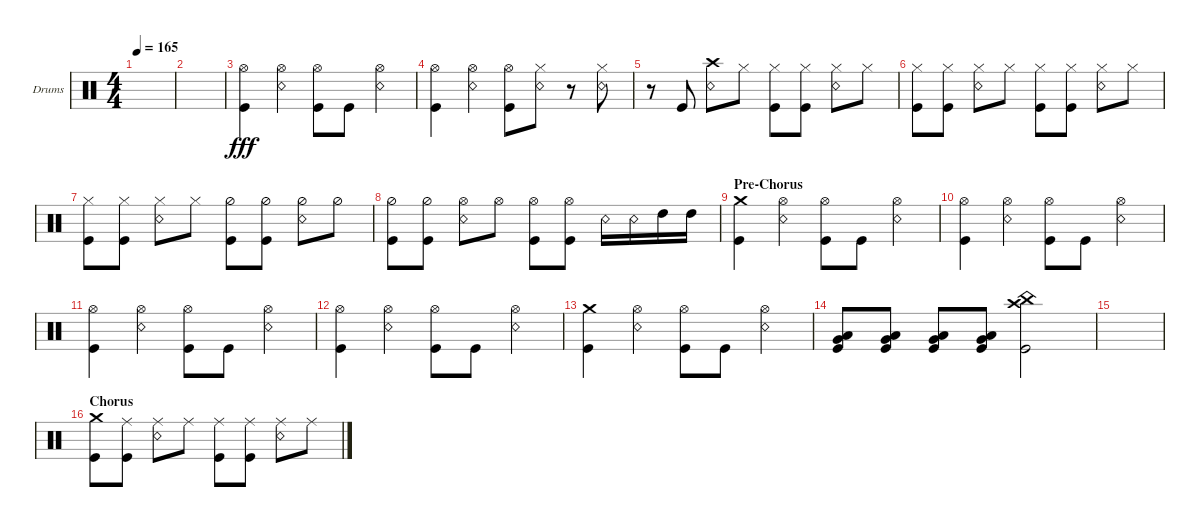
\defaultSystemsLayout 4
\bracketExtendMode groupsimilarinstruments
\firstSystemTrackNameOrientation horizontal
\otherSystemsTrackNameOrientation horizontal
\track ("Drums" "Drums") {instrument percussion}
\staff {score}
\articulation defaults
\ts (4 4)
\tempo 165
\clef neutral
\ks c
|
|
("Hi-Hat (open)" "Kick (hit)").4{dy fff} ("Hi-Hat (open)" "Snare (rim shot)").4 ("Hi-Hat (open)" "Kick (hit)").8 "Kick (hit)".8 ("Hi-Hat (open)" "Snare (rim shot)").4 |
("Hi-Hat (open)" "Kick (hit)").4 ("Hi-Hat (open)" "Snare (rim shot)").4 ("Hi-Hat (open)" "Kick (hit)").8 ("Hi-Hat (closed)" "Snare (rim shot)").8 r.8 ("Snare (rim shot)" "Hi-Hat (closed)").8 |
r.8 "Kick (hit)".8 ("Snare (rim shot)" "Crash high (hit)").8 "Hi-Hat (closed)".8 ("Hi-Hat (closed)" "Kick (hit)").8 ("Hi-Hat (closed)" "Kick (hit)").8 ("Hi-Hat (closed)" "Snare (rim shot)").8 "Hi-Hat (closed)".8 |
("Kick (hit)" "Hi-Hat (closed)").8 ("Kick (hit)" "Hi-Hat (closed)").8 ("Snare (rim shot)" "Hi-Hat (closed)").8 "Hi-Hat (closed)".8 ("Kick (hit)" "Hi-Hat (closed)").8 ("Kick (hit)" "Hi-Hat (closed)").8 ("Snare (rim shot)" "Hi-Hat (closed)").8 "Hi-Hat (closed)".8 |
("Kick (hit)" "Hi-Hat (closed)").8 ("Kick (hit)" "Hi-Hat (closed)").8 ("Snare (rim shot)" "Hi-Hat (closed)").8 "Hi-Hat (closed)".8 ("Kick (hit)" "Hi-Hat (half)").8 ("Kick (hit)" "Hi-Hat (half)").8 ("Snare (rim shot)" "Hi-Hat (half)").8 "Hi-Hat (half)".8 |
("Kick (hit)" "Hi-Hat (half)").8 ("Kick (hit)" "Hi-Hat (half)").8 ("Snare (rim shot)" "Hi-Hat (open)").8 "Hi-Hat (open)".8 ("Kick (hit)" "Hi-Hat (open)").8 ("Kick (hit)" "Hi-Hat (open)").8 "Snare (rim shot)".16 "Snare (rim shot)".16 "High Tom (hit)".16 "High Tom (hit)".16 |
\section ("" "Pre-Chorus")
("Kick (hit)" "Crash medium (hit)").4 ("Hi-Hat (open)" "Snare (rim shot)").4 ("Hi-Hat (open)" "Kick (hit)").8 "Kick (hit)".8 ("Hi-Hat (open)" "Snare (rim shot)").4 |
("Hi-Hat (open)" "Kick (hit)").4 ("Hi-Hat (open)" "Snare (rim shot)").4 ("Hi-Hat (open)" "Kick (hit)").8 "Kick (hit)".8 ("Hi-Hat (open)" "Snare (rim shot)").4 |
("Hi-Hat (open)" "Kick (hit)").4 ("Hi-Hat (open)" "Snare (rim shot)").4 ("Hi-Hat (open)" "Kick (hit)").8 "Kick (hit)".8 ("Hi-Hat (open)" "Snare (rim shot)").4 |
("Hi-Hat (open)" "Kick (hit)").4 ("Hi-Hat (open)" "Snare (rim shot)").4 ("Hi-Hat (open)" "Kick (hit)").8 "Kick (hit)".8 ("Hi-Hat (open)" "Snare (rim shot)").4 |
("Kick (hit)" "Crash medium (hit)").4 ("Hi-Hat (open)" "Snare (rim shot)").4 ("Hi-Hat (open)" "Kick (hit)").8 "Kick (hit)".8 ("Hi-Hat (open)" "Snare (rim shot)").4 |
("Kick (hit)" "Very Low Tom (hit)" "Low Tom (hit)").8 ("Kick (hit)" "Very Low Tom (hit)" "Low Tom (hit)").8 ("Kick (hit)" "Very Low Tom (hit)" "Low Tom (hit)").8 ("Kick (hit)" "Very Low Tom (hit)" "Low Tom (hit)").8 ("Kick (hit)" "China (hit)" "Crash high (hit)").2 |
|
\section ("" "Chorus")
("Crash medium (hit)" "Kick (hit)").8 ("Ride (middle)" "Kick (hit)").8 ("Ride (middle)" "Snare (rim shot)").8 "Ride (middle)".8 ("Ride (middle)" "Kick (hit)").8 ("Ride (middle)" "Kick (hit)").8 ("Ride (middle)" "Snare (rim shot)").8 "Ride (middle)".8
